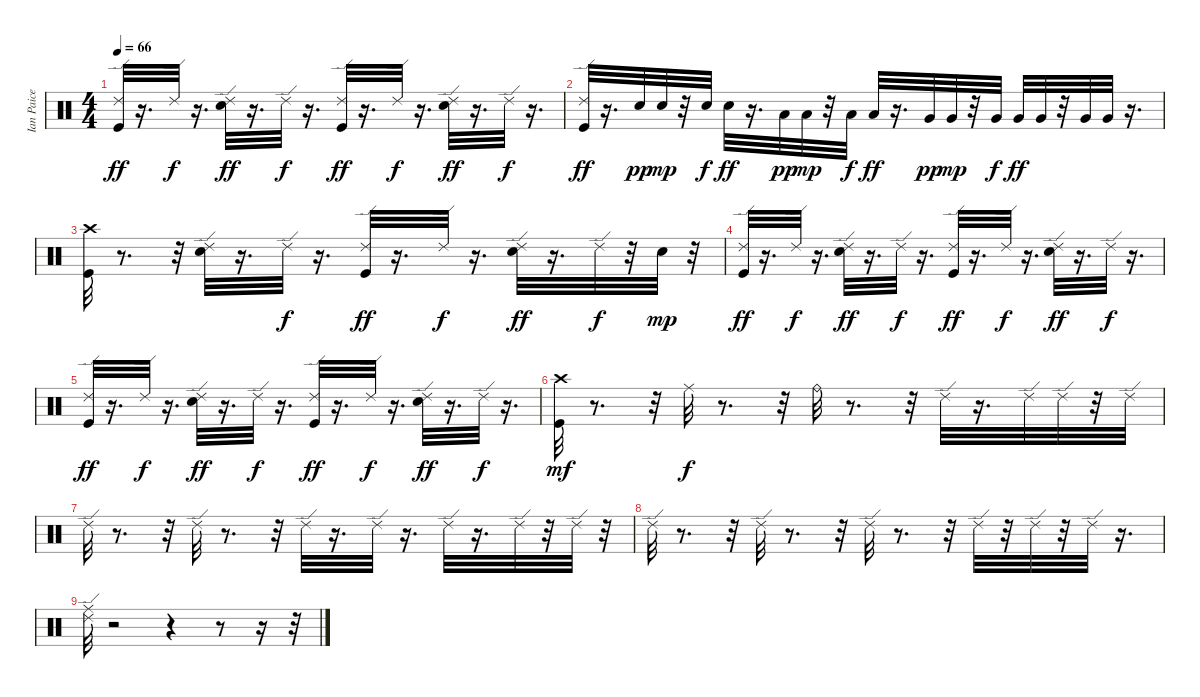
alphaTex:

\track ("Ian Paice" "Ian Paice") {instrument percussion}
\staff {score}
\articulation defaults
\ts (4 4)
\tempo 66
\clef neutral
\ks c
("Kick (hit)" "Ride (edge) 2").32{dy ff} r.16{d} "Ride (edge) 2".32{dy f} r.16{d} ("Snare (hit) 2" "Ride (edge) 2").32{dy ff} r.16{d} "Ride (edge) 2".32{dy f} r.16{d} ("Kick (hit)" "Ride (edge) 2").32{dy ff} r.16{d} "Ride (edge) 2".32{dy f} r.16{d} ("Snare (hit) 2" "Ride (edge) 2").32{dy ff} r.16{d} "Ride (edge) 2".32{dy f} r.16{d} |
("Kick (hit)" "Ride (edge) 2").32{dy ff} r.16{d} "Snare (hit) 2".32{dy pp} "Snare (hit) 2".32{dy mp} r.32 "Snare (hit) 2".32{dy f} "Snare (hit) 2".32{dy ff} r.16{d} "Low Tom (hit)".32{dy pp} "Low Tom (hit)".32{dy mp} r.32 "Low Tom (hit)".32{dy f} "Low Tom (hit)".32{dy ff} r.16{d} "Very Low Tom (hit)".32{dy pp} "Very Low Tom (hit)".32{dy mp} r.32 "Very Low Tom (hit)".32{dy f} "Very Low Tom (hit)".32{dy ff} "Very Low Tom (hit)".32 r.32 "Very Low Tom (hit)".32 "Very Low Tom (hit)".32 r.16{d} |
("Kick (hit)" "Crash high (hit)").32 r.8{d} r.32 ("Snare (hit) 2" "Ride (edge) 2").32 r.16{d} "Ride (edge) 2".32{dy f} r.16{d} ("Kick (hit)" "Ride (edge) 2").32{dy ff} r.16{d} "Ride (edge) 2".32{dy f} r.16{d} ("Snare (hit) 2" "Ride (edge) 2").32{dy ff} r.16{d} "Ride (edge) 2".32{dy f} r.32 "Snare (hit) 2".32{dy mp} r.32 |
("Kick (hit)" "Ride (edge) 2").32{dy ff} r.16{d} "Ride (edge) 2".32{dy f} r.16{d} ("Snare (hit) 2" "Ride (edge) 2").32{dy ff} r.16{d} "Ride (edge) 2".32{dy f} r.16{d} ("Kick (hit)" "Ride (edge) 2").32{dy ff} r.16{d} "Ride (edge) 2".32{dy f} r.16{d} ("Snare (hit) 2" "Ride (edge) 2").32{dy ff} r.16{d} "Ride (edge) 2".32{dy f} r.16{d} |
("Kick (hit)" "Ride (edge) 2").32{dy ff} r.16{d} "Ride (edge) 2".32{dy f} r.16{d} ("Snare (hit) 2" "Ride (edge) 2").32{dy ff} r.16{d} "Ride (edge) 2".32{dy f} r.16{d} ("Kick (hit)" "Ride (edge) 2").32{dy ff} r.16{d} "Ride (edge) 2".32{dy f} r.16{d} ("Snare (hit) 2" "Ride (edge) 2").32{dy ff} r.16{d} "Ride (edge) 2".32{dy f} r.16{d} |
("Kick (hit)" "Crash high (hit)").32{dy mf} r.8{d} r.32 "Ride (middle)".32{dy f} r.8{d} r.32 "Ride (bell)".32 r.8{d} r.32 "Ride (edge) 2".32 r.16{d} "Ride (edge) 2".32 "Ride (edge) 2".32 r.32 "Ride (edge) 2".32 |
"Ride (edge) 2".32 r.8{d} r.32 "Ride (edge) 2".32 r.8{d} r.32 "Ride (edge) 2".32 r.16{d} "Ride (edge) 2".32 r.16{d} "Ride (edge) 2".32 r.16{d} "Ride (edge) 2".32 r.32 "Ride (edge) 2".32 r.32 |
"Ride (edge) 2".32 r.8{d} r.32 "Ride (edge) 2".32 r.8{d} r.32 "Ride (edge) 2".32 r.8{d} r.32 "Ride (edge) 2".32 r.32 "Ride (edge) 2".32 r.32 "Ride (edge) 2".32 r.16{d} |
("Ride (middle)" "Ride (edge) 2").32 r.2 r.4 r.8 r.16 r.32
